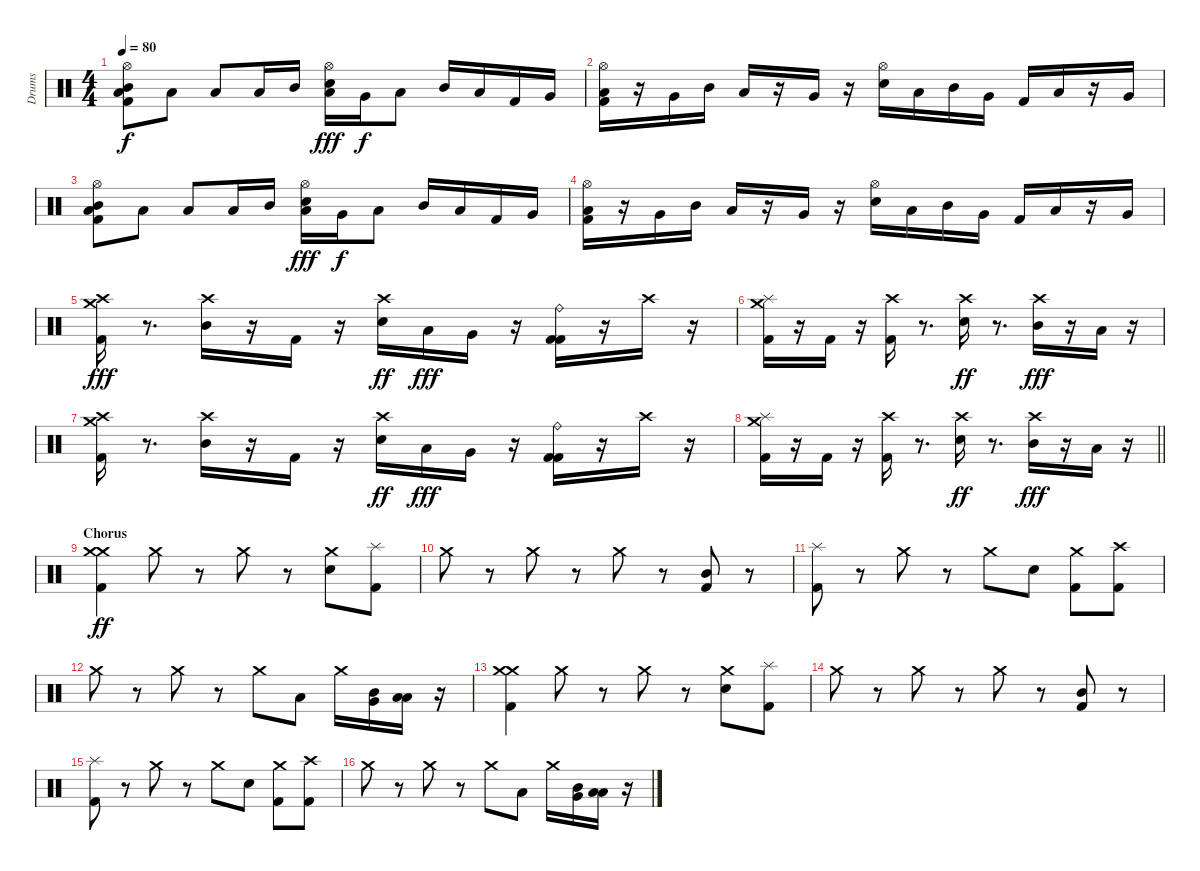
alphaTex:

\track ("Drums" "Drums") {instrument percussion}
\staff {score}
\articulation defaults
\ts (4 4)
\tempo 80
\clef neutral
\ks c
("Hi-Hat (open)" "Kick (hit) 2" "Low Tom (hit)" "Mid Tom (hit)").8{dy f} "Low Tom (hit)".8 "Low Tom (hit)".8 "Low Tom (hit)".16 "Mid Tom (hit)".16 ("Hi-Hat (open)" "Snare (hit) 2" "Low Tom (hit)").16{dy fff} "Very Low Tom (hit)".16{dy f} "Low Tom (hit)".8 "Mid Tom (hit)".16 "Low Tom (hit)".16 "Kick (hit) 2".16 "Very Low Tom (hit)".16 |
("Hi-Hat (open)" "Kick (hit) 2" "Low Tom (hit)").16 r.16 "Very Low Tom (hit)".16 "Mid Tom (hit)".16 "Low Tom (hit)".16 r.16 "Very Low Tom (hit)".16 r.16 ("Hi-Hat (open)" "Snare (hit) 2").16 "Low Tom (hit)".16 "Mid Tom (hit)".16 "Very Low Tom (hit)".16 "Kick (hit) 2".16 "Low Tom (hit)".16 r.16 "Very Low Tom (hit)".16 |
("Hi-Hat (open)" "Kick (hit) 2" "Low Tom (hit)" "Mid Tom (hit)").8 "Low Tom (hit)".8 "Low Tom (hit)".8 "Low Tom (hit)".16 "Mid Tom (hit)".16 ("Hi-Hat (open)" "Snare (hit) 2" "Low Tom (hit)").16{dy fff} "Very Low Tom (hit)".16{dy f} "Low Tom (hit)".8 "Mid Tom (hit)".16 "Low Tom (hit)".16 "Kick (hit) 2".16 "Very Low Tom (hit)".16 |
("Hi-Hat (open)" "Kick (hit) 2" "Low Tom (hit)").16 r.16 "Very Low Tom (hit)".16 "Mid Tom (hit)".16 "Low Tom (hit)".16 r.16 "Very Low Tom (hit)".16 r.16 ("Hi-Hat (open)" "Snare (hit) 2").16 "Low Tom (hit)".16 "Mid Tom (hit)".16 "Very Low Tom (hit)".16 "Kick (hit) 2".16 "Low Tom (hit)".16 r.16 "Very Low Tom (hit)".16 |
("Crash medium (hit)" "Kick (hit) 2" "Crash high (hit)").16{dy fff} r.8{d} ("Mid Tom (hit)" "Crash high (hit)").16 r.16 "Kick (hit) 2".16 r.16 ("Snare (hit) 2" "Crash high (hit)").16{dy ff} "Low Tom (hit)".16{dy fff} "Very Low Tom (hit)".16 r.16 ("Kick (hit) 2" "Kick (hit) 2" "Ride (bell)").16 r.16 "Crash high (hit)".16 r.16 |
("Crash medium (hit)" "Kick (hit) 2" "Splash (hit)").16 r.16 "Kick (hit) 2".16 r.16 ("Kick (hit) 2" "Crash high (hit)").16 r.8{d} ("Snare (hit) 2" "Crash high (hit)").16{dy ff} r.8{d} ("Mid Tom (hit)" "Crash high (hit)").16{dy fff} r.16 "Low Tom (hit)".16 r.16 |
("Crash medium (hit)" "Kick (hit) 2" "Crash high (hit)").16 r.8{d} ("Mid Tom (hit)" "Crash high (hit)").16 r.16 "Kick (hit) 2".16 r.16 ("Snare (hit) 2" "Crash high (hit)").16{dy ff} "Low Tom (hit)".16{dy fff} "Very Low Tom (hit)".16 r.16 ("Kick (hit) 2" "Kick (hit) 2" "Ride (bell)").16 r.16 "Crash high (hit)".16 r.16 |
\barLineRight lightlight
("Crash medium (hit)" "Kick (hit) 2" "Splash (hit)").16 r.16 "Kick (hit) 2".16 r.16 ("Kick (hit) 2" "Crash high (hit)").16 r.8{d} ("Snare (hit) 2" "Crash high (hit)").16{dy ff} r.8{d} ("Mid Tom (hit)" "Crash high (hit)").16{dy fff} r.16 "Low Tom (hit)".16 r.16 |
\section ("" "Chorus")
("Crash medium (hit)" "Kick (hit) 2" "Crash medium (hit)").4{dy ff} "Crash medium (hit)".8 r.8 "Crash medium (hit)".8 r.8 ("Snare (hit) 2" "Crash medium (hit)").8 ("Kick (hit) 2" "Splash (hit)").8 |
"Crash medium (hit)".8 r.8 "Crash medium (hit)".8 r.8 "Crash medium (hit)".8 r.8 ("Kick (hit) 2" "Mid Tom (hit)").8 r.8 |
("Kick (hit) 2" "Splash (hit)").8 r.8 "Crash medium (hit)".8 r.8 "Crash medium (hit)".8 "Snare (hit) 2".8 ("Kick (hit) 2" "Crash medium (hit)").8 ("Kick (hit) 2" "Crash high (hit)").8 |
"Crash medium (hit)".8 r.8 "Crash medium (hit)".8 r.8 "Crash medium (hit)".8 "Low Tom (hit)".8 "Crash medium (hit)".16 ("Very Low Tom (hit)" "Mid Tom (hit)").16 ("Low Floor Tom (hit)" "Low Tom (hit)").16 r.16 |
("Crash medium (hit)" "Kick (hit) 2" "Crash medium (hit)").4 "Crash medium (hit)".8 r.8 "Crash medium (hit)".8 r.8 ("Snare (hit) 2" "Crash medium (hit)").8 ("Kick (hit) 2" "Splash (hit)").8 |
"Crash medium (hit)".8 r.8 "Crash medium (hit)".8 r.8 "Crash medium (hit)".8 r.8 ("Kick (hit) 2" "Mid Tom (hit)").8 r.8 |
("Kick (hit) 2" "Splash (hit)").8 r.8 "Crash medium (hit)".8 r.8 "Crash medium (hit)".8 "Snare (hit) 2".8 ("Kick (hit) 2" "Crash medium (hit)").8 ("Kick (hit) 2" "Crash high (hit)").8 |
"Crash medium (hit)".8 r.8 "Crash medium (hit)".8 r.8 "Crash medium (hit)".8 "Low Tom (hit)".8 "Crash medium (hit)".16 ("Very Low Tom (hit)" "Mid Tom (hit)").16 ("Low Floor Tom (hit)" "Low Tom (hit)").16 r.16
